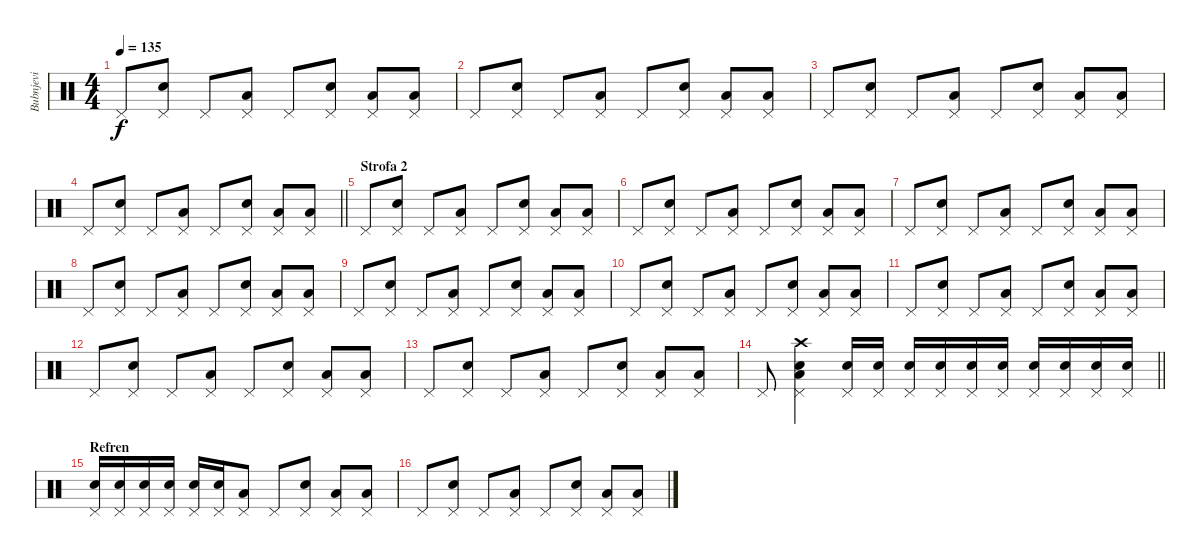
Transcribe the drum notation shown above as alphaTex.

\track ("Bubnjevi" "Bubnjevi") {instrument percussion}
\staff {score}
\articulation defaults
\ts (4 4)
\tempo 135
\clef neutral
\ks c "Pedal Hi-Hat (hit)".8{dy f}
("Pedal Hi-Hat (hit)" "Snare (hit) 2").8 "Pedal Hi-Hat (hit)".8 ("Pedal Hi-Hat (hit)" "Low Tom (hit)").8 "Pedal Hi-Hat (hit)".8 ("Pedal Hi-Hat (hit)" "Snare (hit) 2").8 ("Pedal Hi-Hat (hit)" "Low Tom (hit)").8 ("Pedal Hi-Hat (hit)" "Low Tom (hit)").8 |
"Pedal Hi-Hat (hit)".8 ("Pedal Hi-Hat (hit)" "Snare (hit) 2").8 "Pedal Hi-Hat (hit)".8 ("Pedal Hi-Hat (hit)" "Low Tom (hit)").8 "Pedal Hi-Hat (hit)".8 ("Pedal Hi-Hat (hit)" "Snare (hit) 2").8 ("Pedal Hi-Hat (hit)" "Low Tom (hit)").8 ("Pedal Hi-Hat (hit)" "Low Tom (hit)").8 |
"Pedal Hi-Hat (hit)".8 ("Pedal Hi-Hat (hit)" "Snare (hit) 2").8 "Pedal Hi-Hat (hit)".8 ("Pedal Hi-Hat (hit)" "Low Tom (hit)").8 "Pedal Hi-Hat (hit)".8 ("Pedal Hi-Hat (hit)" "Snare (hit) 2").8 ("Pedal Hi-Hat (hit)" "Low Tom (hit)").8 ("Pedal Hi-Hat (hit)" "Low Tom (hit)").8 |
\barLineRight lightlight "Pedal Hi-Hat (hit)".8
("Pedal Hi-Hat (hit)" "Snare (hit) 2").8 "Pedal Hi-Hat (hit)".8 ("Pedal Hi-Hat (hit)" "Low Tom (hit)").8 "Pedal Hi-Hat (hit)".8 ("Pedal Hi-Hat (hit)" "Snare (hit) 2").8 ("Pedal Hi-Hat (hit)" "Low Tom (hit)").8 ("Pedal Hi-Hat (hit)" "Low Tom (hit)").8 |
\section ("" "Strofa 2")
"Pedal Hi-Hat (hit)".8 ("Pedal Hi-Hat (hit)" "Snare (hit) 2").8 "Pedal Hi-Hat (hit)".8 ("Pedal Hi-Hat (hit)" "Low Tom (hit)").8 "Pedal Hi-Hat (hit)".8 ("Pedal Hi-Hat (hit)" "Snare (hit) 2").8 ("Pedal Hi-Hat (hit)" "Low Tom (hit)").8 ("Pedal Hi-Hat (hit)" "Low Tom (hit)").8 |
"Pedal Hi-Hat (hit)".8 ("Pedal Hi-Hat (hit)" "Snare (hit) 2").8 "Pedal Hi-Hat (hit)".8 ("Pedal Hi-Hat (hit)" "Low Tom (hit)").8 "Pedal Hi-Hat (hit)".8 ("Pedal Hi-Hat (hit)" "Snare (hit) 2").8 ("Pedal Hi-Hat (hit)" "Low Tom (hit)").8 ("Pedal Hi-Hat (hit)" "Low Tom (hit)").8 |
"Pedal Hi-Hat (hit)".8 ("Pedal Hi-Hat (hit)" "Snare (hit) 2").8 "Pedal Hi-Hat (hit)".8 ("Pedal Hi-Hat (hit)" "Low Tom (hit)").8 "Pedal Hi-Hat (hit)".8 ("Pedal Hi-Hat (hit)" "Snare (hit) 2").8 ("Pedal Hi-Hat (hit)" "Low Tom (hit)").8 ("Pedal Hi-Hat (hit)" "Low Tom (hit)").8 |
"Pedal Hi-Hat (hit)".8 ("Pedal Hi-Hat (hit)" "Snare (hit) 2").8 "Pedal Hi-Hat (hit)".8 ("Pedal Hi-Hat (hit)" "Low Tom (hit)").8 "Pedal Hi-Hat (hit)".8 ("Pedal Hi-Hat (hit)" "Snare (hit) 2").8 ("Pedal Hi-Hat (hit)" "Low Tom (hit)").8 ("Pedal Hi-Hat (hit)" "Low Tom (hit)").8 |
"Pedal Hi-Hat (hit)".8 ("Pedal Hi-Hat (hit)" "Snare (hit) 2").8 "Pedal Hi-Hat (hit)".8 ("Pedal Hi-Hat (hit)" "Low Tom (hit)").8 "Pedal Hi-Hat (hit)".8 ("Pedal Hi-Hat (hit)" "Snare (hit) 2").8 ("Pedal Hi-Hat (hit)" "Low Tom (hit)").8 ("Pedal Hi-Hat (hit)" "Low Tom (hit)").8 |
"Pedal Hi-Hat (hit)".8 ("Pedal Hi-Hat (hit)" "Snare (hit) 2").8 "Pedal Hi-Hat (hit)".8 ("Pedal Hi-Hat (hit)" "Low Tom (hit)").8 "Pedal Hi-Hat (hit)".8 ("Pedal Hi-Hat (hit)" "Snare (hit) 2").8 ("Pedal Hi-Hat (hit)" "Low Tom (hit)").8 ("Pedal Hi-Hat (hit)" "Low Tom (hit)").8 |
"Pedal Hi-Hat (hit)".8 ("Pedal Hi-Hat (hit)" "Snare (hit) 2").8 "Pedal Hi-Hat (hit)".8 ("Pedal Hi-Hat (hit)" "Low Tom (hit)").8 "Pedal Hi-Hat (hit)".8 ("Pedal Hi-Hat (hit)" "Snare (hit) 2").8 ("Pedal Hi-Hat (hit)" "Low Tom (hit)").8 ("Pedal Hi-Hat (hit)" "Low Tom (hit)").8 |
"Pedal Hi-Hat (hit)".8 ("Pedal Hi-Hat (hit)" "Snare (hit) 2").8 "Pedal Hi-Hat (hit)".8 ("Pedal Hi-Hat (hit)" "Low Tom (hit)").8 "Pedal Hi-Hat (hit)".8 ("Pedal Hi-Hat (hit)" "Snare (hit) 2").8 ("Pedal Hi-Hat (hit)" "Low Tom (hit)").8 ("Pedal Hi-Hat (hit)" "Low Tom (hit)").8 |
"Pedal Hi-Hat (hit)".8 ("Pedal Hi-Hat (hit)" "Snare (hit) 2").8 "Pedal Hi-Hat (hit)".8 ("Pedal Hi-Hat (hit)" "Low Tom (hit)").8 "Pedal Hi-Hat (hit)".8 ("Pedal Hi-Hat (hit)" "Snare (hit) 2").8 ("Pedal Hi-Hat (hit)" "Low Tom (hit)").8 ("Pedal Hi-Hat (hit)" "Low Tom (hit)").8 |
\barLineRight lightlight "Pedal Hi-Hat (hit)".8
("Pedal Hi-Hat (hit)" "Low Tom (hit)" "Crash high (hit)" "Snare (hit) 2").4 ("Pedal Hi-Hat (hit)" "Snare (hit) 2").16 ("Pedal Hi-Hat (hit)" "Snare (hit) 2").16 ("Pedal Hi-Hat (hit)" "Snare (hit) 2").16 ("Pedal Hi-Hat (hit)" "Snare (hit) 2").16 ("Pedal Hi-Hat (hit)" "Snare (hit) 2").16 ("Pedal Hi-Hat (hit)" "Snare (hit) 2").16 ("Pedal Hi-Hat (hit)" "Snare (hit) 2").16 ("Pedal Hi-Hat (hit)" "Snare (hit) 2").16 ("Pedal Hi-Hat (hit)" "Snare (hit) 2").16 ("Pedal Hi-Hat (hit)" "Snare (hit) 2").16 |
\section ("" "Refren")
("Pedal Hi-Hat (hit)" "Snare (hit) 2").16 ("Pedal Hi-Hat (hit)" "Snare (hit) 2").16 ("Pedal Hi-Hat (hit)" "Snare (hit) 2").16 ("Pedal Hi-Hat (hit)" "Snare (hit) 2").16 ("Pedal Hi-Hat (hit)" "Snare (hit) 2").16 ("Pedal Hi-Hat (hit)" "Snare (hit) 2").16 ("Pedal Hi-Hat (hit)" "Low Tom (hit)").8 "Pedal Hi-Hat (hit)".8 ("Pedal Hi-Hat (hit)" "Snare (hit) 2").8 ("Pedal Hi-Hat (hit)" "Low Tom (hit)").8 ("Pedal Hi-Hat (hit)" "Low Tom (hit)").8 |
"Pedal Hi-Hat (hit)".8 ("Pedal Hi-Hat (hit)" "Snare (hit) 2").8 "Pedal Hi-Hat (hit)".8 ("Pedal Hi-Hat (hit)" "Low Tom (hit)").8 "Pedal Hi-Hat (hit)".8 ("Pedal Hi-Hat (hit)" "Snare (hit) 2").8 ("Pedal Hi-Hat (hit)" "Low Tom (hit)").8 ("Pedal Hi-Hat (hit)" "Low Tom (hit)").8
